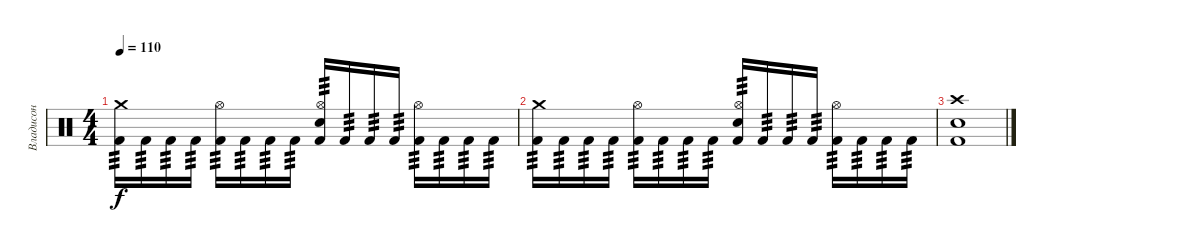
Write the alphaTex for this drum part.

\track ("Владисон" "Владисон") {instrument percussion}
\staff
\articulation defaults
\ts (4 4)
\tempo 110
\clef neutral
\ks c
("Crash medium (hit)" "Kick (hit) 2").16{tp 3 dy f} "Kick (hit) 2".16{tp 3} "Kick (hit) 2".16{tp 3} "Kick (hit) 2".16{tp 3} ("Hi-Hat (open)" "Kick (hit) 2").16{tp 3} "Kick (hit) 2".16{tp 3} "Kick (hit) 2".16{tp 3} "Kick (hit) 2".16{tp 3} ("Hi-Hat (open)" "Snare (hit) 2" "Kick (hit) 2").16{tp 3} "Kick (hit) 2".16{tp 3} "Kick (hit) 2".16{tp 3} "Kick (hit) 2".16{tp 3} ("Hi-Hat (open)" "Kick (hit) 2").16{tp 3} "Kick (hit) 2".16{tp 3} "Kick (hit) 2".16{tp 3} "Kick (hit) 2".16{tp 3} |
("Crash medium (hit)" "Kick (hit) 2").16{tp 3} "Kick (hit) 2".16{tp 3} "Kick (hit) 2".16{tp 3} "Kick (hit) 2".16{tp 3} ("Hi-Hat (open)" "Kick (hit) 2").16{tp 3} "Kick (hit) 2".16{tp 3} "Kick (hit) 2".16{tp 3} "Kick (hit) 2".16{tp 3} ("Hi-Hat (open)" "Snare (hit) 2" "Kick (hit) 2").16{tp 3} "Kick (hit) 2".16{tp 3} "Kick (hit) 2".16{tp 3} "Kick (hit) 2".16{tp 3} ("Hi-Hat (open)" "Kick (hit) 2").16{tp 3} "Kick (hit) 2".16{tp 3} "Kick (hit) 2".16{tp 3} "Kick (hit) 2".16{tp 3} |
("Crash high (hit)" "Kick (hit) 2" "Snare (hit) 2").1
